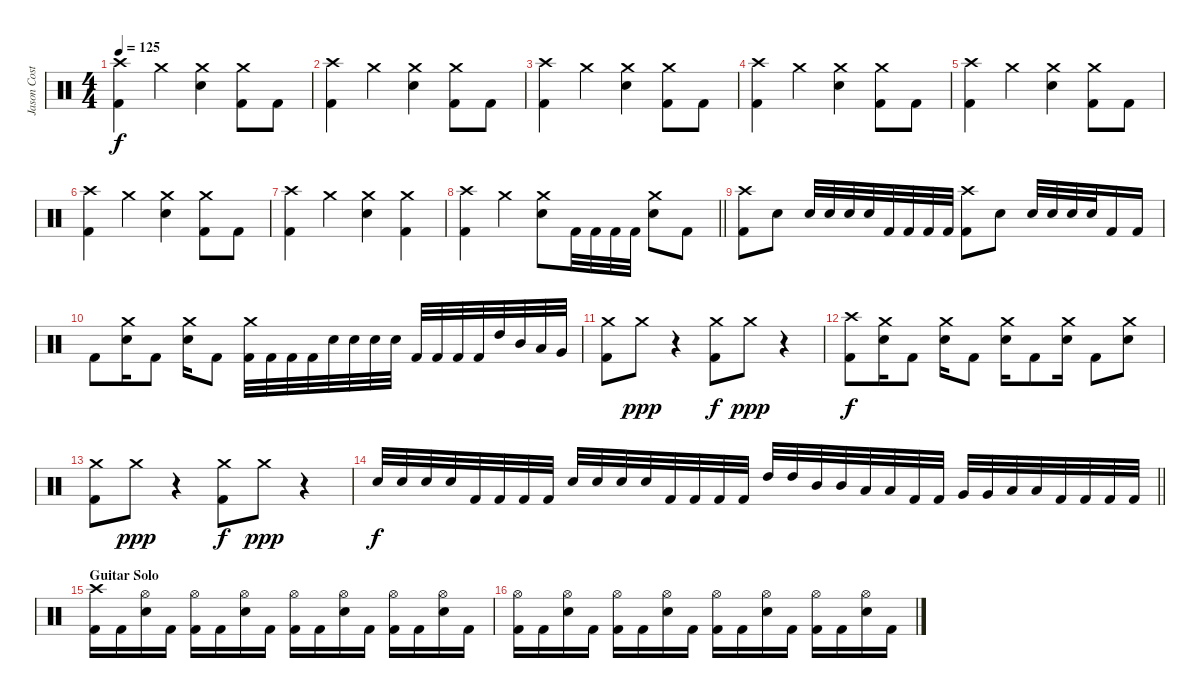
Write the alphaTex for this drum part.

\track ("Jason Costa" "Jason Cost") {instrument percussion}
\staff {score}
\articulation defaults
\ts (4 4)
\tempo 125
\clef neutral
\ks c
("Crash high (hit)" "Kick (hit) 2").4{dy f} "Crash medium (hit)".4 ("Crash medium (hit)" "Electric Snare (hit)").4 ("Crash medium (hit)" "Kick (hit) 2").8 "Kick (hit) 2".8 |
("Crash high (hit)" "Kick (hit) 2").4 "Crash medium (hit)".4 ("Crash medium (hit)" "Electric Snare (hit)").4 ("Crash medium (hit)" "Kick (hit) 2").8 "Kick (hit) 2".8 |
("Crash high (hit)" "Kick (hit) 2").4 "Crash medium (hit)".4 ("Crash medium (hit)" "Electric Snare (hit)").4 ("Crash medium (hit)" "Kick (hit) 2").8 "Kick (hit) 2".8 |
("Crash high (hit)" "Kick (hit) 2").4 "Crash medium (hit)".4 ("Crash medium (hit)" "Electric Snare (hit)").4 ("Crash medium (hit)" "Kick (hit) 2").8 "Kick (hit) 2".8 |
("Crash high (hit)" "Kick (hit) 2").4 "Crash medium (hit)".4 ("Crash medium (hit)" "Electric Snare (hit)").4 ("Crash medium (hit)" "Kick (hit) 2").8 "Kick (hit) 2".8 |
("Crash high (hit)" "Kick (hit) 2").4 "Crash medium (hit)".4 ("Crash medium (hit)" "Electric Snare (hit)").4 ("Crash medium (hit)" "Kick (hit) 2").8 "Kick (hit) 2".8 |
("Crash high (hit)" "Kick (hit) 2").4 "Crash medium (hit)".4 ("Crash medium (hit)" "Electric Snare (hit)").4 ("Crash medium (hit)" "Kick (hit) 2").4 |
\barLineRight lightlight
("Crash high (hit)" "Kick (hit) 2").4 "Crash medium (hit)".4 ("Crash medium (hit)" "Electric Snare (hit)").8 "Kick (hit) 2".32 "Kick (hit) 2".32 "Kick (hit) 2".32 "Kick (hit) 2".32 ("Crash medium (hit)" "Electric Snare (hit)").8 "Kick (hit) 2".8 |
\section ("" "")
("Crash high (hit)" "Kick (hit) 2").8 "Electric Snare (hit)".8 "Electric Snare (hit)".32 "Electric Snare (hit)".32 "Electric Snare (hit)".32 "Electric Snare (hit)".32 "Kick (hit) 2".32 "Kick (hit) 2".32 "Kick (hit) 2".32 "Kick (hit) 2".32 ("Crash high (hit)" "Kick (hit) 2").8 "Electric Snare (hit)".8 "Electric Snare (hit)".32 "Electric Snare (hit)".32 "Electric Snare (hit)".32 "Electric Snare (hit)".32 "Kick (hit) 2".16 "Kick (hit) 2".16 |
"Kick (hit) 2".8 ("Crash medium (hit)" "Electric Snare (hit)").16 "Kick (hit) 2".8 ("Crash medium (hit)" "Electric Snare (hit)").16 "Kick (hit) 2".8 ("Crash medium (hit)" "Kick (hit) 2").32 "Kick (hit) 2".32 "Kick (hit) 2".32 "Kick (hit) 2".32 "Electric Snare (hit)".32 "Electric Snare (hit)".32 "Electric Snare (hit)".32 "Electric Snare (hit)".32 "Kick (hit) 2".32 "Kick (hit) 2".32 "Kick (hit) 2".32 "Kick (hit) 2".32 "High Tom (hit)".32 "Mid Tom (hit)".32 "Low Tom (hit)".32 "Very Low Tom (hit)".32 |
("Crash medium (hit)" "Kick (hit) 2").8 "Crash medium (hit)".8{dy ppp} r.4 ("Crash medium (hit)" "Kick (hit) 2").8{dy f} "Crash medium (hit)".8{dy ppp} r.4 |
("Crash high (hit)" "Kick (hit) 2").8{dy f} ("Crash medium (hit)" "Electric Snare (hit)").16 "Kick (hit) 2".8 ("Crash medium (hit)" "Electric Snare (hit)").16 "Kick (hit) 2".8 ("Crash medium (hit)" "Electric Snare (hit)").16 "Kick (hit) 2".8 ("Crash medium (hit)" "Electric Snare (hit)").16 "Kick (hit) 2".8 ("Crash medium (hit)" "Electric Snare (hit)").8 |
("Crash medium (hit)" "Kick (hit) 2").8 "Crash medium (hit)".8{dy ppp} r.4 ("Crash medium (hit)" "Kick (hit) 2").8{dy f} "Crash medium (hit)".8{dy ppp} r.4 |
\barLineRight lightlight "Electric Snare (hit)".32{dy f} "Electric Snare (hit)".32 "Electric Snare (hit)".32 "Electric Snare (hit)".32 "Kick (hit) 2".32 "Kick (hit) 2".32 "Kick (hit) 2".32 "Kick (hit) 2".32 "Electric Snare (hit)".32 "Electric Snare (hit)".32 "Electric Snare (hit)".32 "Electric Snare (hit)".32 "Kick (hit) 2".32 "Kick (hit) 2".32 "Kick (hit) 2".32 "Kick (hit) 2".32 "High Tom (hit)".32 "High Tom (hit)".32 "Mid Tom (hit)".32 "Mid Tom (hit)".32 "Low Tom (hit)".32 "Low Tom (hit)".32 "Kick (hit) 2".32 "Kick (hit) 2".32 "Very Low Tom (hit)".32 "Very Low Tom (hit)".32 "Low Floor Tom (hit)".32 "Low Floor Tom (hit)".32 "Kick (hit) 2".32 "Kick (hit) 2".32 "Kick (hit) 2".32 "Kick (hit) 2".32
|
\section ("" "Guitar Solo")
("Crash high (hit)" "Kick (hit) 2").16 "Kick (hit) 2".16 ("Hi-Hat (open)" "Electric Snare (hit)").16 "Kick (hit) 2".16 ("Hi-Hat (open)" "Kick (hit) 2").16 "Kick (hit) 2".16 ("Hi-Hat (open)" "Electric Snare (hit)").16 "Kick (hit) 2".16 ("Hi-Hat (open)" "Kick (hit) 2").16 "Kick (hit) 2".16 ("Hi-Hat (open)" "Electric Snare (hit)").16 "Kick (hit) 2".16 ("Hi-Hat (open)" "Kick (hit) 2").16 "Kick (hit) 2".16 ("Hi-Hat (open)" "Electric Snare (hit)").16 "Kick (hit) 2".16 |
("Hi-Hat (open)" "Kick (hit) 2").16 "Kick (hit) 2".16 ("Hi-Hat (open)" "Electric Snare (hit)").16 "Kick (hit) 2".16 ("Hi-Hat (open)" "Kick (hit) 2").16 "Kick (hit) 2".16 ("Hi-Hat (open)" "Electric Snare (hit)").16 "Kick (hit) 2".16 ("Hi-Hat (open)" "Kick (hit) 2").16 "Kick (hit) 2".16 ("Hi-Hat (open)" "Electric Snare (hit)").16 "Kick (hit) 2".16 ("Hi-Hat (open)" "Kick (hit) 2").16 "Kick (hit) 2".16 ("Hi-Hat (open)" "Electric Snare (hit)").16 "Kick (hit) 2".16
